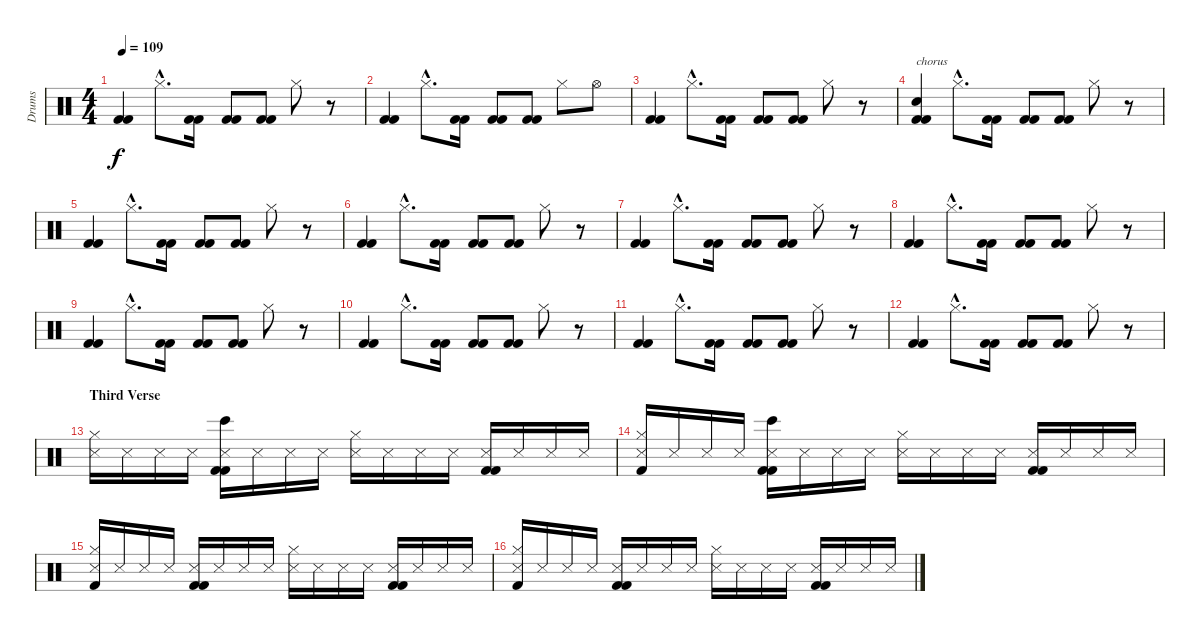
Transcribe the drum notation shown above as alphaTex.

\track ("Drums" "Drums") {instrument percussion}
\staff {score}
\articulation defaults
\ts (4 4)
\tempo 109
\clef neutral
\ks c
("Kick (hit) 2" "Kick (hit) 2").4{dy f} "Hi-Hat (closed)"{hac}.8{d} ("Kick (hit) 2" "Kick (hit) 2").16 ("Kick (hit) 2" "Kick (hit) 2").8 ("Kick (hit) 2" "Kick (hit) 2").8 "Hi-Hat (closed)".8 r.8 |
("Kick (hit) 2" "Kick (hit) 2").4 "Hi-Hat (closed)"{hac}.8{d} ("Kick (hit) 2" "Kick (hit) 2").16 ("Kick (hit) 2" "Kick (hit) 2").8 ("Kick (hit) 2" "Kick (hit) 2").8 "Hi-Hat (closed)".8 "Hi-Hat (open)".8 |
("Kick (hit) 2" "Kick (hit) 2").4 "Hi-Hat (closed)"{hac}.8{d} ("Kick (hit) 2" "Kick (hit) 2").16 ("Kick (hit) 2" "Kick (hit) 2").8 ("Kick (hit) 2" "Kick (hit) 2").8 "Hi-Hat (closed)".8 r.8 |
("Snare (hit) 2" "Kick (hit) 2" "Kick (hit) 2").4{txt "chorus" volume 9} "Hi-Hat (closed)"{hac}.8{d} ("Kick (hit) 2" "Kick (hit) 2").16 ("Kick (hit) 2" "Kick (hit) 2").8 ("Kick (hit) 2" "Kick (hit) 2").8 "Hi-Hat (closed)".8 r.8 |
("Kick (hit) 2" "Kick (hit) 2").4 "Hi-Hat (closed)"{hac}.8{d} ("Kick (hit) 2" "Kick (hit) 2").16 ("Kick (hit) 2" "Kick (hit) 2").8 ("Kick (hit) 2" "Kick (hit) 2").8 "Hi-Hat (closed)".8 r.8 |
("Kick (hit) 2" "Kick (hit) 2").4 "Hi-Hat (closed)"{hac}.8{d} ("Kick (hit) 2" "Kick (hit) 2").16 ("Kick (hit) 2" "Kick (hit) 2").8 ("Kick (hit) 2" "Kick (hit) 2").8 "Hi-Hat (closed)".8 r.8 |
("Kick (hit) 2" "Kick (hit) 2").4 "Hi-Hat (closed)"{hac}.8{d} ("Kick (hit) 2" "Kick (hit) 2").16 ("Kick (hit) 2" "Kick (hit) 2").8 ("Kick (hit) 2" "Kick (hit) 2").8 "Hi-Hat (closed)".8 r.8 |
("Kick (hit) 2" "Kick (hit) 2").4 "Hi-Hat (closed)"{hac}.8{d} ("Kick (hit) 2" "Kick (hit) 2").16 ("Kick (hit) 2" "Kick (hit) 2").8 ("Kick (hit) 2" "Kick (hit) 2").8 "Hi-Hat (closed)".8 r.8 |
("Kick (hit) 2" "Kick (hit) 2").4 "Hi-Hat (closed)"{hac}.8{d} ("Kick (hit) 2" "Kick (hit) 2").16 ("Kick (hit) 2" "Kick (hit) 2").8 ("Kick (hit) 2" "Kick (hit) 2").8 "Hi-Hat (closed)".8 r.8 |
("Kick (hit) 2" "Kick (hit) 2").4 "Hi-Hat (closed)"{hac}.8{d} ("Kick (hit) 2" "Kick (hit) 2").16 ("Kick (hit) 2" "Kick (hit) 2").8 ("Kick (hit) 2" "Kick (hit) 2").8 "Hi-Hat (closed)".8 r.8 |
("Kick (hit) 2" "Kick (hit) 2").4 "Hi-Hat (closed)"{hac}.8{d} ("Kick (hit) 2" "Kick (hit) 2").16 ("Kick (hit) 2" "Kick (hit) 2").8 ("Kick (hit) 2" "Kick (hit) 2").8 "Hi-Hat (closed)".8 r.8 |
("Kick (hit) 2" "Kick (hit) 2").4 "Hi-Hat (closed)"{hac}.8{d} ("Kick (hit) 2" "Kick (hit) 2").16 ("Kick (hit) 2" "Kick (hit) 2").8 ("Kick (hit) 2" "Kick (hit) 2").8 "Hi-Hat (closed)".8 r.8 |
\section ("" "Third Verse")
("Hi-Hat (closed)" "Snare (side stick) 3").16 "Snare (side stick) 3".16 "Snare (side stick) 3".16 "Snare (side stick) 3".16 ("Bongo High (hit)" "Snare (side stick) 3" "Kick (hit) 2" "Kick (hit) 2").16 "Snare (side stick) 3".16 "Snare (side stick) 3".16 "Snare (side stick) 3".16 ("Hi-Hat (closed)" "Snare (side stick) 3").16 "Snare (side stick) 3".16 "Snare (side stick) 3".16 "Snare (side stick) 3".16 ("Snare (side stick) 3" "Kick (hit) 2" "Kick (hit) 2").16 "Snare (side stick) 3".16 "Snare (side stick) 3".16 "Snare (side stick) 3".16 |
("Hi-Hat (closed)" "Snare (side stick) 3" "Kick (hit) 2").16 "Snare (side stick) 3".16 "Snare (side stick) 3".16 "Snare (side stick) 3".16 ("Bongo High (hit)" "Snare (side stick) 3" "Kick (hit) 2" "Kick (hit) 2").16 "Snare (side stick) 3".16 "Snare (side stick) 3".16 "Snare (side stick) 3".16 ("Hi-Hat (closed)" "Snare (side stick) 3").16 "Snare (side stick) 3".16 "Snare (side stick) 3".16 "Snare (side stick) 3".16 ("Snare (side stick) 3" "Kick (hit) 2" "Kick (hit) 2").16 "Snare (side stick) 3".16 "Snare (side stick) 3".16 "Snare (side stick) 3".16 |
("Hi-Hat (closed)" "Snare (side stick) 3" "Kick (hit) 2").16 "Snare (side stick) 3".16 "Snare (side stick) 3".16 "Snare (side stick) 3".16 ("Snare (side stick) 3" "Kick (hit) 2" "Kick (hit) 2").16 "Snare (side stick) 3".16 "Snare (side stick) 3".16 "Snare (side stick) 3".16 ("Hi-Hat (closed)" "Snare (side stick) 3").16 "Snare (side stick) 3".16 "Snare (side stick) 3".16 "Snare (side stick) 3".16 ("Snare (side stick) 3" "Kick (hit) 2" "Kick (hit) 2").16 "Snare (side stick) 3".16 "Snare (side stick) 3".16 "Snare (side stick) 3".16 |
("Hi-Hat (closed)" "Snare (side stick) 3" "Kick (hit) 2").16 "Snare (side stick) 3".16 "Snare (side stick) 3".16 "Snare (side stick) 3".16 ("Snare (side stick) 3" "Kick (hit) 2" "Kick (hit) 2").16 "Snare (side stick) 3".16 "Snare (side stick) 3".16 "Snare (side stick) 3".16 ("Hi-Hat (closed)" "Snare (side stick) 3").16 "Snare (side stick) 3".16 "Snare (side stick) 3".16 "Snare (side stick) 3".16 ("Snare (side stick) 3" "Kick (hit) 2" "Kick (hit) 2").16 "Snare (side stick) 3".16 "Snare (side stick) 3".16 "Snare (side stick) 3".16
